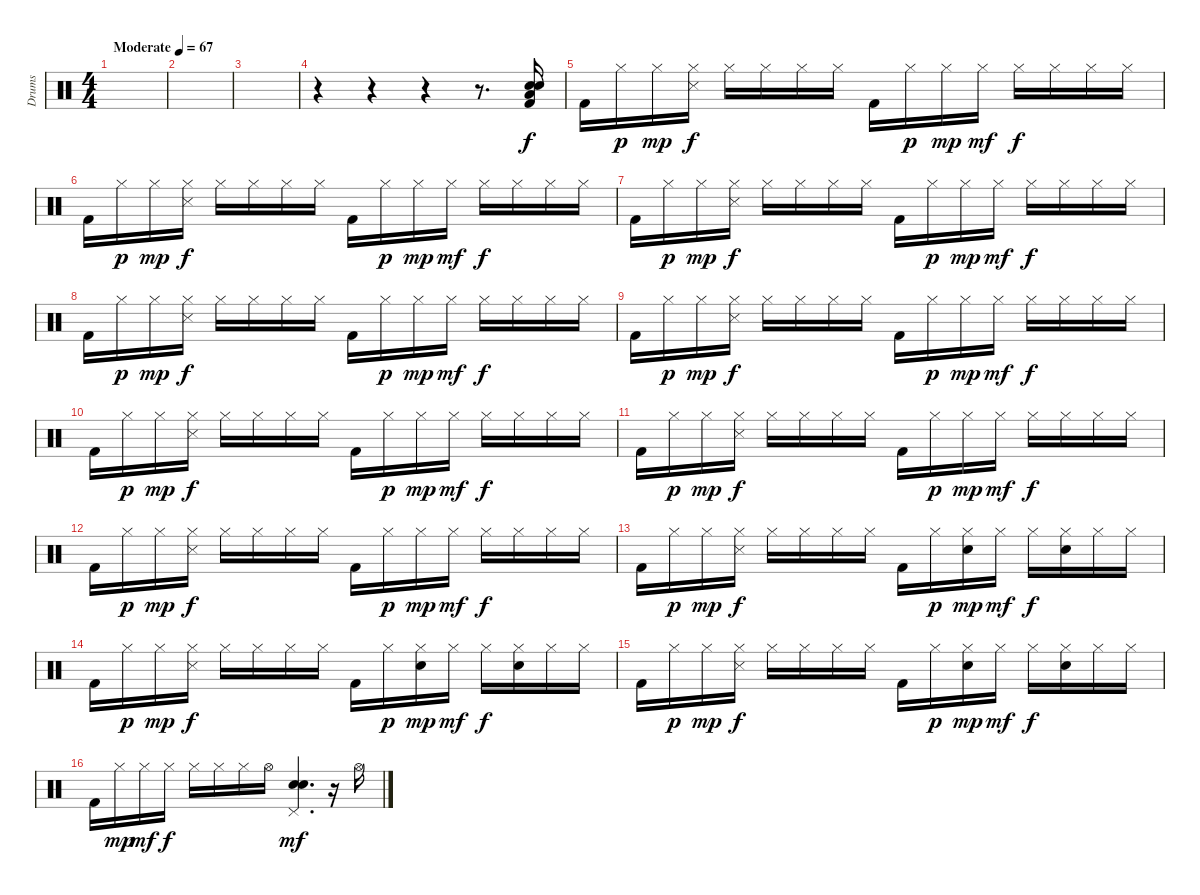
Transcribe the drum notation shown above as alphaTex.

\track ("Drums" "Drums") {instrument percussion}
\staff {score}
\articulation defaults
\ts (4 4)
\tempo (67 "Moderate")
\clef neutral
\ks c
|
|
|
r.4 r.4 r.4 r.8{d} ("Low Floor Tom (hit)" "Hand Clap (hit)" "Snare (hit) 2" "Kick (hit) 2").16 |
"Kick (hit) 2".16 "Hi-Hat (closed)".16{dy p} "Hi-Hat (closed)".16{dy mp} ("Hi-Hat (closed)" "Snare (side stick) 3").16{dy f} "Hi-Hat (closed)".16 "Hi-Hat (closed)".16 "Hi-Hat (closed)".16 "Hi-Hat (closed)".16 "Kick (hit) 2".16 "Hi-Hat (closed)".16{dy p} "Hi-Hat (closed)".16{dy mp} "Hi-Hat (closed)".16{dy mf} "Hi-Hat (closed)".16{dy f} "Hi-Hat (closed)".16 "Hi-Hat (closed)".16 "Hi-Hat (closed)".16 |
"Kick (hit) 2".16 "Hi-Hat (closed)".16{dy p} "Hi-Hat (closed)".16{dy mp} ("Hi-Hat (closed)" "Snare (side stick) 3").16{dy f} "Hi-Hat (closed)".16 "Hi-Hat (closed)".16 "Hi-Hat (closed)".16 "Hi-Hat (closed)".16 "Kick (hit) 2".16 "Hi-Hat (closed)".16{dy p} "Hi-Hat (closed)".16{dy mp} "Hi-Hat (closed)".16{dy mf} "Hi-Hat (closed)".16{dy f} "Hi-Hat (closed)".16 "Hi-Hat (closed)".16 "Hi-Hat (closed)".16 |
"Kick (hit) 2".16 "Hi-Hat (closed)".16{dy p} "Hi-Hat (closed)".16{dy mp} ("Hi-Hat (closed)" "Snare (side stick) 3").16{dy f} "Hi-Hat (closed)".16 "Hi-Hat (closed)".16 "Hi-Hat (closed)".16 "Hi-Hat (closed)".16 "Kick (hit) 2".16 "Hi-Hat (closed)".16{dy p} "Hi-Hat (closed)".16{dy mp} "Hi-Hat (closed)".16{dy mf} "Hi-Hat (closed)".16{dy f} "Hi-Hat (closed)".16 "Hi-Hat (closed)".16 "Hi-Hat (closed)".16 |
"Kick (hit) 2".16 "Hi-Hat (closed)".16{dy p} "Hi-Hat (closed)".16{dy mp} ("Hi-Hat (closed)" "Snare (side stick) 3").16{dy f} "Hi-Hat (closed)".16 "Hi-Hat (closed)".16 "Hi-Hat (closed)".16 "Hi-Hat (closed)".16 "Kick (hit) 2".16 "Hi-Hat (closed)".16{dy p} "Hi-Hat (closed)".16{dy mp} "Hi-Hat (closed)".16{dy mf} "Hi-Hat (closed)".16{dy f} "Hi-Hat (closed)".16 "Hi-Hat (closed)".16 "Hi-Hat (closed)".16 |
"Kick (hit) 2".16 "Hi-Hat (closed)".16{dy p} "Hi-Hat (closed)".16{dy mp} ("Hi-Hat (closed)" "Snare (side stick) 3").16{dy f} "Hi-Hat (closed)".16 "Hi-Hat (closed)".16 "Hi-Hat (closed)".16 "Hi-Hat (closed)".16 "Kick (hit) 2".16 "Hi-Hat (closed)".16{dy p} "Hi-Hat (closed)".16{dy mp} "Hi-Hat (closed)".16{dy mf} "Hi-Hat (closed)".16{dy f} "Hi-Hat (closed)".16 "Hi-Hat (closed)".16 "Hi-Hat (closed)".16 |
"Kick (hit) 2".16 "Hi-Hat (closed)".16{dy p} "Hi-Hat (closed)".16{dy mp} ("Hi-Hat (closed)" "Snare (side stick) 3").16{dy f} "Hi-Hat (closed)".16 "Hi-Hat (closed)".16 "Hi-Hat (closed)".16 "Hi-Hat (closed)".16 "Kick (hit) 2".16 "Hi-Hat (closed)".16{dy p} "Hi-Hat (closed)".16{dy mp} "Hi-Hat (closed)".16{dy mf} "Hi-Hat (closed)".16{dy f} "Hi-Hat (closed)".16 "Hi-Hat (closed)".16 "Hi-Hat (closed)".16 |
"Kick (hit) 2".16 "Hi-Hat (closed)".16{dy p} "Hi-Hat (closed)".16{dy mp} ("Hi-Hat (closed)" "Snare (side stick) 3").16{dy f} "Hi-Hat (closed)".16 "Hi-Hat (closed)".16 "Hi-Hat (closed)".16 "Hi-Hat (closed)".16 "Kick (hit) 2".16 "Hi-Hat (closed)".16{dy p} "Hi-Hat (closed)".16{dy mp} "Hi-Hat (closed)".16{dy mf} "Hi-Hat (closed)".16{dy f} "Hi-Hat (closed)".16 "Hi-Hat (closed)".16 "Hi-Hat (closed)".16 |
"Kick (hit) 2".16 "Hi-Hat (closed)".16{dy p} "Hi-Hat (closed)".16{dy mp} ("Hi-Hat (closed)" "Snare (side stick) 3").16{dy f} "Hi-Hat (closed)".16 "Hi-Hat (closed)".16 "Hi-Hat (closed)".16 "Hi-Hat (closed)".16 "Kick (hit) 2".16 "Hi-Hat (closed)".16{dy p} "Hi-Hat (closed)".16{dy mp} "Hi-Hat (closed)".16{dy mf} "Hi-Hat (closed)".16{dy f} "Hi-Hat (closed)".16 "Hi-Hat (closed)".16 "Hi-Hat (closed)".16 |
"Kick (hit) 2".16 "Hi-Hat (closed)".16{dy p} "Hi-Hat (closed)".16{dy mp} ("Hi-Hat (closed)" "Snare (side stick) 3").16{dy f} "Hi-Hat (closed)".16 "Hi-Hat (closed)".16 "Hi-Hat (closed)".16 "Hi-Hat (closed)".16 "Kick (hit) 2".16 "Hi-Hat (closed)".16{dy p} ("Hi-Hat (closed)" "Hand Clap (hit)").16{dy mp} "Hi-Hat (closed)".16{dy mf} "Hi-Hat (closed)".16{dy f} ("Hi-Hat (closed)" "Hand Clap (hit)").16 "Hi-Hat (closed)".16 "Hi-Hat (closed)".16 |
"Kick (hit) 2".16 "Hi-Hat (closed)".16{dy p} "Hi-Hat (closed)".16{dy mp} ("Hi-Hat (closed)" "Snare (side stick) 3").16{dy f} "Hi-Hat (closed)".16 "Hi-Hat (closed)".16 "Hi-Hat (closed)".16 "Hi-Hat (closed)".16 "Kick (hit) 2".16 "Hi-Hat (closed)".16{dy p} ("Hi-Hat (closed)" "Hand Clap (hit)").16{dy mp} "Hi-Hat (closed)".16{dy mf} "Hi-Hat (closed)".16{dy f} ("Hi-Hat (closed)" "Hand Clap (hit)").16 "Hi-Hat (closed)".16 "Hi-Hat (closed)".16 |
"Kick (hit) 2".16 "Hi-Hat (closed)".16{dy p} "Hi-Hat (closed)".16{dy mp} ("Hi-Hat (closed)" "Snare (side stick) 3").16{dy f} "Hi-Hat (closed)".16 "Hi-Hat (closed)".16 "Hi-Hat (closed)".16 "Hi-Hat (closed)".16 "Kick (hit) 2".16 "Hi-Hat (closed)".16{dy p} ("Hi-Hat (closed)" "Hand Clap (hit)").16{dy mp} "Hi-Hat (closed)".16{dy mf} "Hi-Hat (closed)".16{dy f} ("Hi-Hat (closed)" "Hand Clap (hit)").16 "Hi-Hat (closed)".16 "Hi-Hat (closed)".16 |
"Kick (hit) 2".16 "Hi-Hat (closed)".16{dy mp} "Hi-Hat (closed)".16{dy mf} "Hi-Hat (closed)".16{dy f} "Hi-Hat (closed)".16 "Hi-Hat (closed)".16 "Hi-Hat (closed)".16 "Hi-Hat (open)".16 ("Pedal Hi-Hat (hit)" "Hand Clap (hit)" "Snare (hit) 2").4{d dy mf} r.16 "Hi-Hat (open)".16
